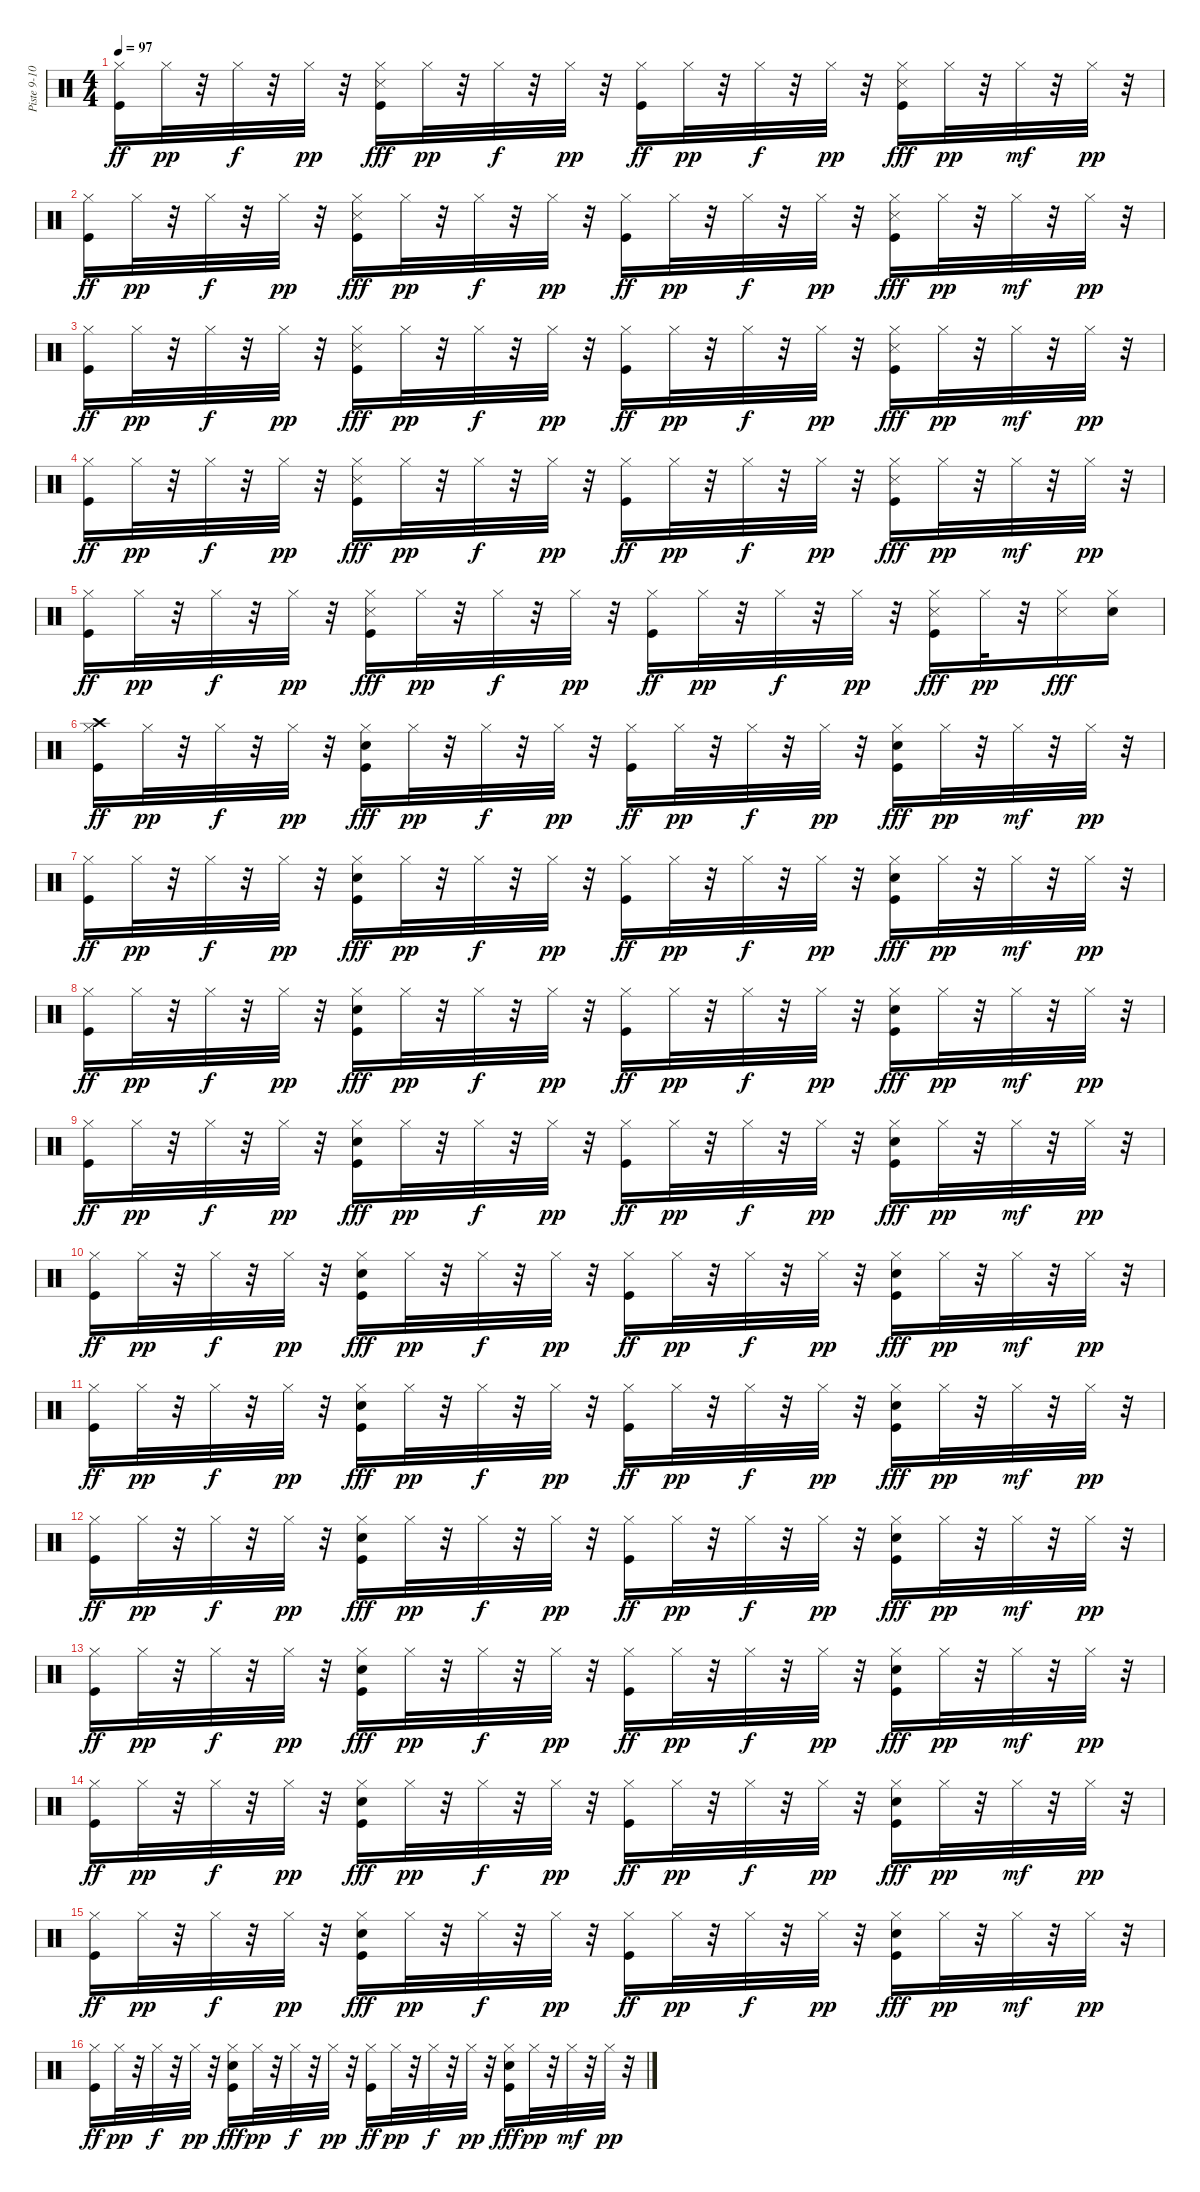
\track ("Piste 9-10-11-12-13-14" "Piste 9-10") {instrument percussion}
\staff {score}
\articulation defaults
\ts (4 4)
\tempo 97
\clef neutral
\ks c
("Hi-Hat (closed)" "Kick (hit)").16{dy ff} "Hi-Hat (closed)".32{dy pp} r.32 "Hi-Hat (closed)".32{dy f} r.32 "Hi-Hat (closed)".32{dy pp} r.32 ("Hi-Hat (closed)" "Kick (hit)" "Snare (side stick) 3").16{dy fff} "Hi-Hat (closed)".32{dy pp} r.32 "Hi-Hat (closed)".32{dy f} r.32 "Hi-Hat (closed)".32{dy pp} r.32 ("Hi-Hat (closed)" "Kick (hit)").16{dy ff} "Hi-Hat (closed)".32{dy pp} r.32 "Hi-Hat (closed)".32{dy f} r.32 "Hi-Hat (closed)".32{dy pp} r.32 ("Hi-Hat (closed)" "Kick (hit)" "Snare (side stick) 3").16{dy fff} "Hi-Hat (closed)".32{dy pp} r.32 "Hi-Hat (closed)".32{dy mf} r.32 "Hi-Hat (closed)".32{dy pp} r.32 |
("Hi-Hat (closed)" "Kick (hit)").16{dy ff} "Hi-Hat (closed)".32{dy pp} r.32 "Hi-Hat (closed)".32{dy f} r.32 "Hi-Hat (closed)".32{dy pp} r.32 ("Hi-Hat (closed)" "Kick (hit)" "Snare (side stick) 3").16{dy fff} "Hi-Hat (closed)".32{dy pp} r.32 "Hi-Hat (closed)".32{dy f} r.32 "Hi-Hat (closed)".32{dy pp} r.32 ("Hi-Hat (closed)" "Kick (hit)").16{dy ff} "Hi-Hat (closed)".32{dy pp} r.32 "Hi-Hat (closed)".32{dy f} r.32 "Hi-Hat (closed)".32{dy pp} r.32 ("Hi-Hat (closed)" "Kick (hit)" "Snare (side stick) 3").16{dy fff} "Hi-Hat (closed)".32{dy pp} r.32 "Hi-Hat (closed)".32{dy mf} r.32 "Hi-Hat (closed)".32{dy pp} r.32 |
("Hi-Hat (closed)" "Kick (hit)").16{dy ff} "Hi-Hat (closed)".32{dy pp} r.32 "Hi-Hat (closed)".32{dy f} r.32 "Hi-Hat (closed)".32{dy pp} r.32 ("Hi-Hat (closed)" "Kick (hit)" "Snare (side stick) 3").16{dy fff} "Hi-Hat (closed)".32{dy pp} r.32 "Hi-Hat (closed)".32{dy f} r.32 "Hi-Hat (closed)".32{dy pp} r.32 ("Hi-Hat (closed)" "Kick (hit)").16{dy ff} "Hi-Hat (closed)".32{dy pp} r.32 "Hi-Hat (closed)".32{dy f} r.32 "Hi-Hat (closed)".32{dy pp} r.32 ("Hi-Hat (closed)" "Kick (hit)" "Snare (side stick) 3").16{dy fff} "Hi-Hat (closed)".32{dy pp} r.32 "Hi-Hat (closed)".32{dy mf} r.32 "Hi-Hat (closed)".32{dy pp} r.32 |
("Hi-Hat (closed)" "Kick (hit)").16{dy ff} "Hi-Hat (closed)".32{dy pp} r.32 "Hi-Hat (closed)".32{dy f} r.32 "Hi-Hat (closed)".32{dy pp} r.32 ("Hi-Hat (closed)" "Kick (hit)" "Snare (side stick) 3").16{dy fff} "Hi-Hat (closed)".32{dy pp} r.32 "Hi-Hat (closed)".32{dy f} r.32 "Hi-Hat (closed)".32{dy pp} r.32 ("Hi-Hat (closed)" "Kick (hit)").16{dy ff} "Hi-Hat (closed)".32{dy pp} r.32 "Hi-Hat (closed)".32{dy f} r.32 "Hi-Hat (closed)".32{dy pp} r.32 ("Hi-Hat (closed)" "Kick (hit)" "Snare (side stick) 3").16{dy fff} "Hi-Hat (closed)".32{dy pp} r.32 "Hi-Hat (closed)".32{dy mf} r.32 "Hi-Hat (closed)".32{dy pp} r.32 |
("Hi-Hat (closed)" "Kick (hit)").16{dy ff} "Hi-Hat (closed)".32{dy pp} r.32 "Hi-Hat (closed)".32{dy f} r.32 "Hi-Hat (closed)".32{dy pp} r.32 ("Hi-Hat (closed)" "Kick (hit)" "Snare (side stick) 3").16{dy fff} "Hi-Hat (closed)".32{dy pp} r.32 "Hi-Hat (closed)".32{dy f} r.32 "Hi-Hat (closed)".32{dy pp} r.32 ("Hi-Hat (closed)" "Kick (hit)").16{dy ff} "Hi-Hat (closed)".32{dy pp} r.32 "Hi-Hat (closed)".32{dy f} r.32 "Hi-Hat (closed)".32{dy pp} r.32 ("Hi-Hat (closed)" "Kick (hit)" "Snare (side stick) 3").16{dy fff} "Hi-Hat (closed)".32{dy pp} r.32 ("Hi-Hat (closed)" "Snare (side stick) 3").16{dy fff} ("Hi-Hat (closed)" "Snare (hit) 2").16 |
("Hi-Hat (closed)" "Crash high (hit)" "Kick (hit)").16{dy ff} "Hi-Hat (closed)".32{dy pp} r.32 "Hi-Hat (closed)".32{dy f} r.32 "Hi-Hat (closed)".32{dy pp} r.32 ("Hi-Hat (closed)" "Snare (hit) 2" "Kick (hit)").16{dy fff} "Hi-Hat (closed)".32{dy pp} r.32 "Hi-Hat (closed)".32{dy f} r.32 "Hi-Hat (closed)".32{dy pp} r.32 ("Hi-Hat (closed)" "Kick (hit)").16{dy ff} "Hi-Hat (closed)".32{dy pp} r.32 "Hi-Hat (closed)".32{dy f} r.32 "Hi-Hat (closed)".32{dy pp} r.32 ("Hi-Hat (closed)" "Snare (hit) 2" "Kick (hit)").16{dy fff} "Hi-Hat (closed)".32{dy pp} r.32 "Hi-Hat (closed)".32{dy mf} r.32 "Hi-Hat (closed)".32{dy pp} r.32 |
("Hi-Hat (closed)" "Kick (hit)").16{dy ff} "Hi-Hat (closed)".32{dy pp} r.32 "Hi-Hat (closed)".32{dy f} r.32 "Hi-Hat (closed)".32{dy pp} r.32 ("Hi-Hat (closed)" "Snare (hit) 2" "Kick (hit)").16{dy fff} "Hi-Hat (closed)".32{dy pp} r.32 "Hi-Hat (closed)".32{dy f} r.32 "Hi-Hat (closed)".32{dy pp} r.32 ("Hi-Hat (closed)" "Kick (hit)").16{dy ff} "Hi-Hat (closed)".32{dy pp} r.32 "Hi-Hat (closed)".32{dy f} r.32 "Hi-Hat (closed)".32{dy pp} r.32 ("Hi-Hat (closed)" "Snare (hit) 2" "Kick (hit)").16{dy fff} "Hi-Hat (closed)".32{dy pp} r.32 "Hi-Hat (closed)".32{dy mf} r.32 "Hi-Hat (closed)".32{dy pp} r.32 |
("Hi-Hat (closed)" "Kick (hit)").16{dy ff} "Hi-Hat (closed)".32{dy pp} r.32 "Hi-Hat (closed)".32{dy f} r.32 "Hi-Hat (closed)".32{dy pp} r.32 ("Hi-Hat (closed)" "Snare (hit) 2" "Kick (hit)").16{dy fff} "Hi-Hat (closed)".32{dy pp} r.32 "Hi-Hat (closed)".32{dy f} r.32 "Hi-Hat (closed)".32{dy pp} r.32 ("Hi-Hat (closed)" "Kick (hit)").16{dy ff} "Hi-Hat (closed)".32{dy pp} r.32 "Hi-Hat (closed)".32{dy f} r.32 "Hi-Hat (closed)".32{dy pp} r.32 ("Hi-Hat (closed)" "Snare (hit) 2" "Kick (hit)").16{dy fff} "Hi-Hat (closed)".32{dy pp} r.32 "Hi-Hat (closed)".32{dy mf} r.32 "Hi-Hat (closed)".32{dy pp} r.32 |
("Hi-Hat (closed)" "Kick (hit)").16{dy ff} "Hi-Hat (closed)".32{dy pp} r.32 "Hi-Hat (closed)".32{dy f} r.32 "Hi-Hat (closed)".32{dy pp} r.32 ("Hi-Hat (closed)" "Snare (hit) 2" "Kick (hit)").16{dy fff} "Hi-Hat (closed)".32{dy pp} r.32 "Hi-Hat (closed)".32{dy f} r.32 "Hi-Hat (closed)".32{dy pp} r.32 ("Hi-Hat (closed)" "Kick (hit)").16{dy ff} "Hi-Hat (closed)".32{dy pp} r.32 "Hi-Hat (closed)".32{dy f} r.32 "Hi-Hat (closed)".32{dy pp} r.32 ("Hi-Hat (closed)" "Snare (hit) 2" "Kick (hit)").16{dy fff} "Hi-Hat (closed)".32{dy pp} r.32 "Hi-Hat (closed)".32{dy mf} r.32 "Hi-Hat (closed)".32{dy pp} r.32 |
("Hi-Hat (closed)" "Kick (hit)").16{dy ff} "Hi-Hat (closed)".32{dy pp} r.32 "Hi-Hat (closed)".32{dy f} r.32 "Hi-Hat (closed)".32{dy pp} r.32 ("Hi-Hat (closed)" "Snare (hit) 2" "Kick (hit)").16{dy fff} "Hi-Hat (closed)".32{dy pp} r.32 "Hi-Hat (closed)".32{dy f} r.32 "Hi-Hat (closed)".32{dy pp} r.32 ("Hi-Hat (closed)" "Kick (hit)").16{dy ff} "Hi-Hat (closed)".32{dy pp} r.32 "Hi-Hat (closed)".32{dy f} r.32 "Hi-Hat (closed)".32{dy pp} r.32 ("Hi-Hat (closed)" "Snare (hit) 2" "Kick (hit)").16{dy fff} "Hi-Hat (closed)".32{dy pp} r.32 "Hi-Hat (closed)".32{dy mf} r.32 "Hi-Hat (closed)".32{dy pp} r.32 |
("Hi-Hat (closed)" "Kick (hit)").16{dy ff} "Hi-Hat (closed)".32{dy pp} r.32 "Hi-Hat (closed)".32{dy f} r.32 "Hi-Hat (closed)".32{dy pp} r.32 ("Hi-Hat (closed)" "Snare (hit) 2" "Kick (hit)").16{dy fff} "Hi-Hat (closed)".32{dy pp} r.32 "Hi-Hat (closed)".32{dy f} r.32 "Hi-Hat (closed)".32{dy pp} r.32 ("Hi-Hat (closed)" "Kick (hit)").16{dy ff} "Hi-Hat (closed)".32{dy pp} r.32 "Hi-Hat (closed)".32{dy f} r.32 "Hi-Hat (closed)".32{dy pp} r.32 ("Hi-Hat (closed)" "Snare (hit) 2" "Kick (hit)").16{dy fff} "Hi-Hat (closed)".32{dy pp} r.32 "Hi-Hat (closed)".32{dy mf} r.32 "Hi-Hat (closed)".32{dy pp} r.32 |
("Hi-Hat (closed)" "Kick (hit)").16{dy ff} "Hi-Hat (closed)".32{dy pp} r.32 "Hi-Hat (closed)".32{dy f} r.32 "Hi-Hat (closed)".32{dy pp} r.32 ("Hi-Hat (closed)" "Snare (hit) 2" "Kick (hit)").16{dy fff} "Hi-Hat (closed)".32{dy pp} r.32 "Hi-Hat (closed)".32{dy f} r.32 "Hi-Hat (closed)".32{dy pp} r.32 ("Hi-Hat (closed)" "Kick (hit)").16{dy ff} "Hi-Hat (closed)".32{dy pp} r.32 "Hi-Hat (closed)".32{dy f} r.32 "Hi-Hat (closed)".32{dy pp} r.32 ("Hi-Hat (closed)" "Snare (hit) 2" "Kick (hit)").16{dy fff} "Hi-Hat (closed)".32{dy pp} r.32 "Hi-Hat (closed)".32{dy mf} r.32 "Hi-Hat (closed)".32{dy pp} r.32 |
("Hi-Hat (closed)" "Kick (hit)").16{dy ff} "Hi-Hat (closed)".32{dy pp} r.32 "Hi-Hat (closed)".32{dy f} r.32 "Hi-Hat (closed)".32{dy pp} r.32 ("Hi-Hat (closed)" "Snare (hit) 2" "Kick (hit)").16{dy fff} "Hi-Hat (closed)".32{dy pp} r.32 "Hi-Hat (closed)".32{dy f} r.32 "Hi-Hat (closed)".32{dy pp} r.32 ("Hi-Hat (closed)" "Kick (hit)").16{dy ff} "Hi-Hat (closed)".32{dy pp} r.32 "Hi-Hat (closed)".32{dy f} r.32 "Hi-Hat (closed)".32{dy pp} r.32 ("Hi-Hat (closed)" "Snare (hit) 2" "Kick (hit)").16{dy fff} "Hi-Hat (closed)".32{dy pp} r.32 "Hi-Hat (closed)".32{dy mf} r.32 "Hi-Hat (closed)".32{dy pp} r.32 |
("Hi-Hat (closed)" "Kick (hit)").16{dy ff} "Hi-Hat (closed)".32{dy pp} r.32 "Hi-Hat (closed)".32{dy f} r.32 "Hi-Hat (closed)".32{dy pp} r.32 ("Hi-Hat (closed)" "Snare (hit) 2" "Kick (hit)").16{dy fff} "Hi-Hat (closed)".32{dy pp} r.32 "Hi-Hat (closed)".32{dy f} r.32 "Hi-Hat (closed)".32{dy pp} r.32 ("Hi-Hat (closed)" "Kick (hit)").16{dy ff} "Hi-Hat (closed)".32{dy pp} r.32 "Hi-Hat (closed)".32{dy f} r.32 "Hi-Hat (closed)".32{dy pp} r.32 ("Hi-Hat (closed)" "Snare (hit) 2" "Kick (hit)").16{dy fff} "Hi-Hat (closed)".32{dy pp} r.32 "Hi-Hat (closed)".32{dy mf} r.32 "Hi-Hat (closed)".32{dy pp} r.32 |
("Hi-Hat (closed)" "Kick (hit)").16{dy ff} "Hi-Hat (closed)".32{dy pp} r.32 "Hi-Hat (closed)".32{dy f} r.32 "Hi-Hat (closed)".32{dy pp} r.32 ("Hi-Hat (closed)" "Snare (hit) 2" "Kick (hit)").16{dy fff} "Hi-Hat (closed)".32{dy pp} r.32 "Hi-Hat (closed)".32{dy f} r.32 "Hi-Hat (closed)".32{dy pp} r.32 ("Hi-Hat (closed)" "Kick (hit)").16{dy ff} "Hi-Hat (closed)".32{dy pp} r.32 "Hi-Hat (closed)".32{dy f} r.32 "Hi-Hat (closed)".32{dy pp} r.32 ("Hi-Hat (closed)" "Snare (hit) 2" "Kick (hit)").16{dy fff} "Hi-Hat (closed)".32{dy pp} r.32 "Hi-Hat (closed)".32{dy mf} r.32 "Hi-Hat (closed)".32{dy pp} r.32 |
("Hi-Hat (closed)" "Kick (hit)").16{dy ff} "Hi-Hat (closed)".32{dy pp} r.32 "Hi-Hat (closed)".32{dy f} r.32 "Hi-Hat (closed)".32{dy pp} r.32 ("Hi-Hat (closed)" "Snare (hit) 2" "Kick (hit)").16{dy fff} "Hi-Hat (closed)".32{dy pp} r.32 "Hi-Hat (closed)".32{dy f} r.32 "Hi-Hat (closed)".32{dy pp} r.32 ("Hi-Hat (closed)" "Kick (hit)").16{dy ff} "Hi-Hat (closed)".32{dy pp} r.32 "Hi-Hat (closed)".32{dy f} r.32 "Hi-Hat (closed)".32{dy pp} r.32 ("Hi-Hat (closed)" "Snare (hit) 2" "Kick (hit)").16{dy fff} "Hi-Hat (closed)".32{dy pp} r.32 "Hi-Hat (closed)".32{dy mf} r.32 "Hi-Hat (closed)".32{dy pp} r.32
